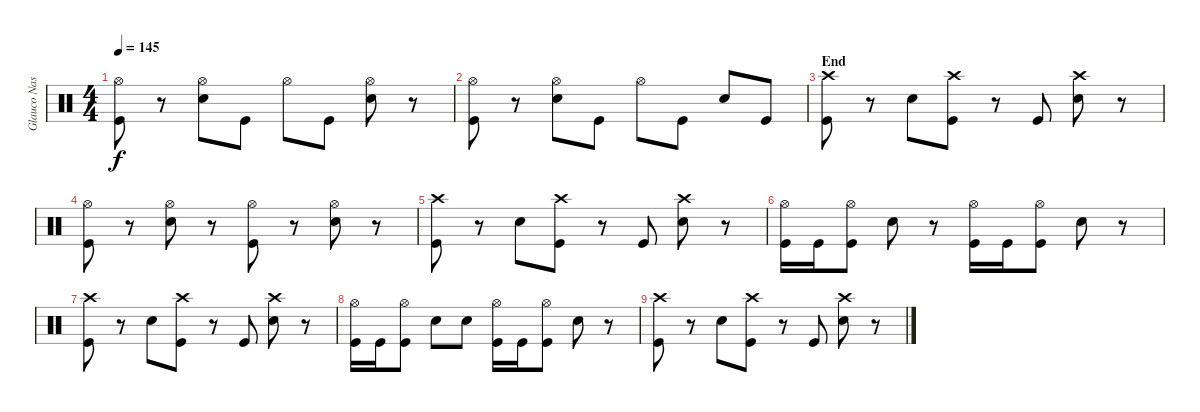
\track ("Glauco Nastácia" "Glauco Nas") {instrument percussion}
\staff {score}
\articulation defaults
\ts (4 4)
\tempo 145
\clef neutral
\ks c
("Hi-Hat (open)" "Kick (hit)").8{dy f} r.8 ("Hi-Hat (open)" "Electric Snare (hit)").8 "Kick (hit)".8 "Hi-Hat (open)".8 "Kick (hit)".8 ("Hi-Hat (open)" "Electric Snare (hit)").8 r.8 |
("Hi-Hat (open)" "Kick (hit)").8 r.8 ("Hi-Hat (open)" "Electric Snare (hit)").8 "Kick (hit)".8 "Hi-Hat (open)".8 "Kick (hit)".8 "Electric Snare (hit)".8 "Kick (hit)".8 |
\section ("" "End")
("Crash high (hit)" "Kick (hit)").8 r.8 "Electric Snare (hit)".8 ("Crash high (hit)" "Kick (hit)").8 r.8 "Kick (hit)".8 ("Crash high (hit)" "Electric Snare (hit)").8 r.8 |
("Hi-Hat (open)" "Kick (hit)").8 r.8 ("Hi-Hat (open)" "Electric Snare (hit)").8 r.8 ("Hi-Hat (open)" "Kick (hit)").8 r.8 ("Hi-Hat (open)" "Electric Snare (hit)").8 r.8 |
("Crash high (hit)" "Kick (hit)").8 r.8 "Electric Snare (hit)".8 ("Crash high (hit)" "Kick (hit)").8 r.8 "Kick (hit)".8 ("Crash high (hit)" "Electric Snare (hit)").8 r.8 |
("Hi-Hat (open)" "Kick (hit)").16 "Kick (hit)".16 ("Hi-Hat (open)" "Kick (hit)").8 "Electric Snare (hit)".8 r.8 ("Hi-Hat (open)" "Kick (hit)").16 "Kick (hit)".16 ("Hi-Hat (open)" "Kick (hit)").8 "Electric Snare (hit)".8 r.8 |
("Crash high (hit)" "Kick (hit)").8 r.8 "Electric Snare (hit)".8 ("Crash high (hit)" "Kick (hit)").8 r.8 "Kick (hit)".8 ("Crash high (hit)" "Electric Snare (hit)").8 r.8 |
("Hi-Hat (open)" "Kick (hit)").16 "Kick (hit)".16 ("Hi-Hat (open)" "Kick (hit)").8 "Electric Snare (hit)".8 "Electric Snare (hit)".8 ("Hi-Hat (open)" "Kick (hit)").16 "Kick (hit)".16 ("Hi-Hat (open)" "Kick (hit)").8 "Electric Snare (hit)".8 r.8 |
("Crash high (hit)" "Kick (hit)").8 r.8 "Electric Snare (hit)".8 ("Crash high (hit)" "Kick (hit)").8 r.8 "Kick (hit)".8 ("Crash high (hit)" "Electric Snare (hit)").8 r.8
